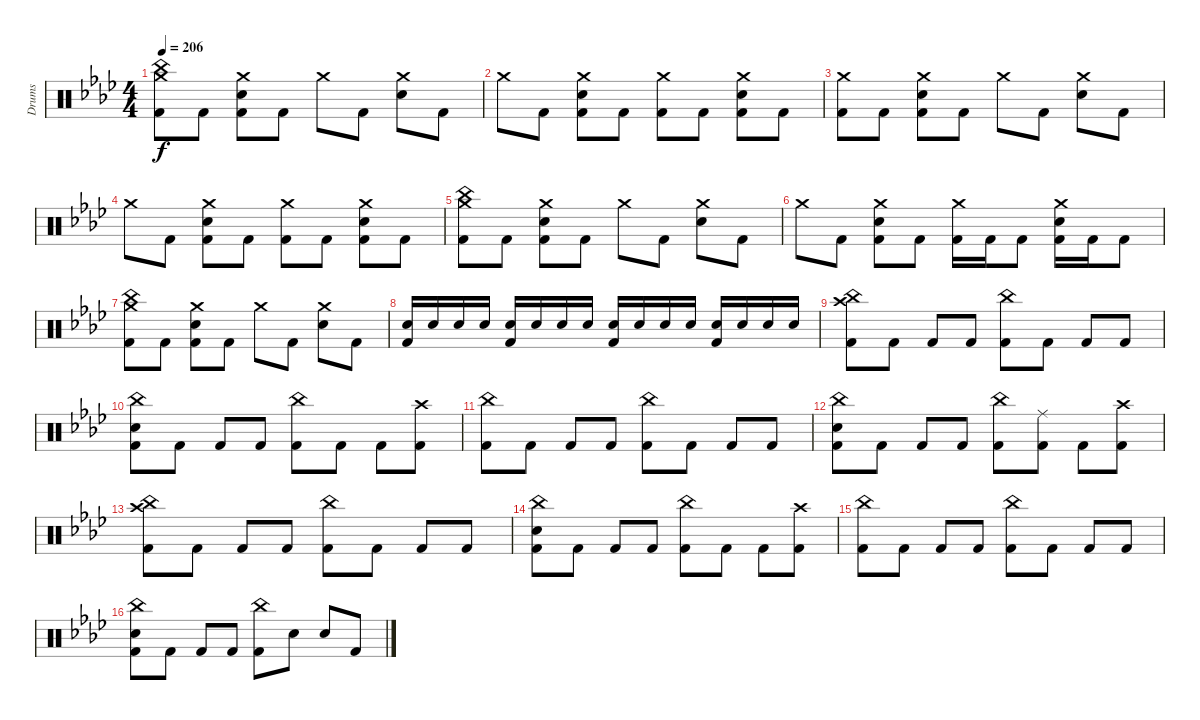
\track ("Drums" "Drums") {instrument percussion}
\staff {score}
\articulation defaults
\ts (4 4)
\tempo 206
\clef neutral
\ks fminor
("Crash medium (hit)" "China (hit)" "Kick (hit) 2").8{dy f} "Kick (hit) 2".8 ("Crash medium (hit)" "Electric Snare (hit)" "Kick (hit) 2").8 "Kick (hit) 2".8 "Crash medium (hit)".8 "Kick (hit) 2".8 ("Crash medium (hit)" "Electric Snare (hit)").8 "Kick (hit) 2".8 |
"Crash medium (hit)".8 "Kick (hit) 2".8 ("Crash medium (hit)" "Electric Snare (hit)" "Kick (hit) 2").8 "Kick (hit) 2".8 ("Crash medium (hit)" "Kick (hit) 2").8 "Kick (hit) 2".8 ("Crash medium (hit)" "Electric Snare (hit)" "Kick (hit) 2").8 "Kick (hit) 2".8 |
("Crash medium (hit)" "Kick (hit) 2").8 "Kick (hit) 2".8 ("Crash medium (hit)" "Electric Snare (hit)" "Kick (hit) 2").8 "Kick (hit) 2".8 "Crash medium (hit)".8 "Kick (hit) 2".8 ("Crash medium (hit)" "Electric Snare (hit)").8 "Kick (hit) 2".8 |
"Crash medium (hit)".8 "Kick (hit) 2".8 ("Crash medium (hit)" "Electric Snare (hit)" "Kick (hit) 2").8 "Kick (hit) 2".8 ("Crash medium (hit)" "Kick (hit) 2").8 "Kick (hit) 2".8 ("Crash medium (hit)" "Electric Snare (hit)" "Kick (hit) 2").8 "Kick (hit) 2".8 |
("Crash medium (hit)" "China (hit)" "Kick (hit) 2").8 "Kick (hit) 2".8 ("Crash medium (hit)" "Electric Snare (hit)" "Kick (hit) 2").8 "Kick (hit) 2".8 "Crash medium (hit)".8 "Kick (hit) 2".8 ("Crash medium (hit)" "Electric Snare (hit)").8 "Kick (hit) 2".8 |
"Crash medium (hit)".8 "Kick (hit) 2".8 ("Crash medium (hit)" "Electric Snare (hit)" "Kick (hit) 2").8 "Kick (hit) 2".8 ("Crash medium (hit)" "Kick (hit) 2").16 "Kick (hit) 2".16 "Kick (hit) 2".8 ("Crash medium (hit)" "Electric Snare (hit)" "Kick (hit) 2").16 "Kick (hit) 2".16 "Kick (hit) 2".8 |
("Crash medium (hit)" "China (hit)" "Kick (hit) 2").8 "Kick (hit) 2".8 ("Crash medium (hit)" "Electric Snare (hit)" "Kick (hit) 2").8 "Kick (hit) 2".8 "Crash medium (hit)".8 "Kick (hit) 2".8 ("Crash medium (hit)" "Electric Snare (hit)").8 "Kick (hit) 2".8 |
("Electric Snare (hit)" "Kick (hit) 2").16 "Electric Snare (hit)".16 "Electric Snare (hit)".16 "Electric Snare (hit)".16 ("Electric Snare (hit)" "Kick (hit) 2").16 "Electric Snare (hit)".16 "Electric Snare (hit)".16 "Electric Snare (hit)".16 ("Electric Snare (hit)" "Kick (hit) 2").16 "Electric Snare (hit)".16 "Electric Snare (hit)".16 "Electric Snare (hit)".16 ("Electric Snare (hit)" "Kick (hit) 2").16 "Electric Snare (hit)".16 "Electric Snare (hit)".16 "Electric Snare (hit)".16 |
("China (hit)" "Crash high (hit)" "Kick (hit) 2").8 "Kick (hit) 2".8 "Kick (hit) 2".8 "Kick (hit) 2".8 ("China (hit)" "Kick (hit) 2").8 "Kick (hit) 2".8 "Kick (hit) 2".8 "Kick (hit) 2".8 |
("China (hit)" "Electric Snare (hit)" "Kick (hit) 2").8 "Kick (hit) 2".8 "Kick (hit) 2".8 "Kick (hit) 2".8 ("China (hit)" "Kick (hit) 2").8 "Kick (hit) 2".8 "Kick (hit) 2".8 ("Crash high (hit)" "Kick (hit) 2").8 |
("China (hit)" "Kick (hit) 2").8 "Kick (hit) 2".8 "Kick (hit) 2".8 "Kick (hit) 2".8 ("China (hit)" "Kick (hit) 2").8 "Kick (hit) 2".8 "Kick (hit) 2".8 "Kick (hit) 2".8 |
("China (hit)" "Electric Snare (hit)" "Kick (hit) 2").8 "Kick (hit) 2".8 "Kick (hit) 2".8 "Kick (hit) 2".8 ("China (hit)" "Kick (hit) 2").8 ("Ride (middle)" "Kick (hit) 2").8 "Kick (hit) 2".8 ("Crash high (hit)" "Kick (hit) 2").8 |
("China (hit)" "Crash high (hit)" "Kick (hit) 2").8 "Kick (hit) 2".8 "Kick (hit) 2".8 "Kick (hit) 2".8 ("China (hit)" "Kick (hit) 2").8 "Kick (hit) 2".8 "Kick (hit) 2".8 "Kick (hit) 2".8 |
("China (hit)" "Electric Snare (hit)" "Kick (hit) 2").8 "Kick (hit) 2".8 "Kick (hit) 2".8 "Kick (hit) 2".8 ("China (hit)" "Kick (hit) 2").8 "Kick (hit) 2".8 "Kick (hit) 2".8 ("Crash high (hit)" "Kick (hit) 2").8 |
("China (hit)" "Kick (hit) 2").8 "Kick (hit) 2".8 "Kick (hit) 2".8 "Kick (hit) 2".8 ("China (hit)" "Kick (hit) 2").8 "Kick (hit) 2".8 "Kick (hit) 2".8 "Kick (hit) 2".8 |
("China (hit)" "Electric Snare (hit)" "Kick (hit) 2").8 "Kick (hit) 2".8 "Kick (hit) 2".8 "Kick (hit) 2".8 ("China (hit)" "Kick (hit) 2").8 "Electric Snare (hit)".8 "Electric Snare (hit)".8 "Kick (hit) 2".8
